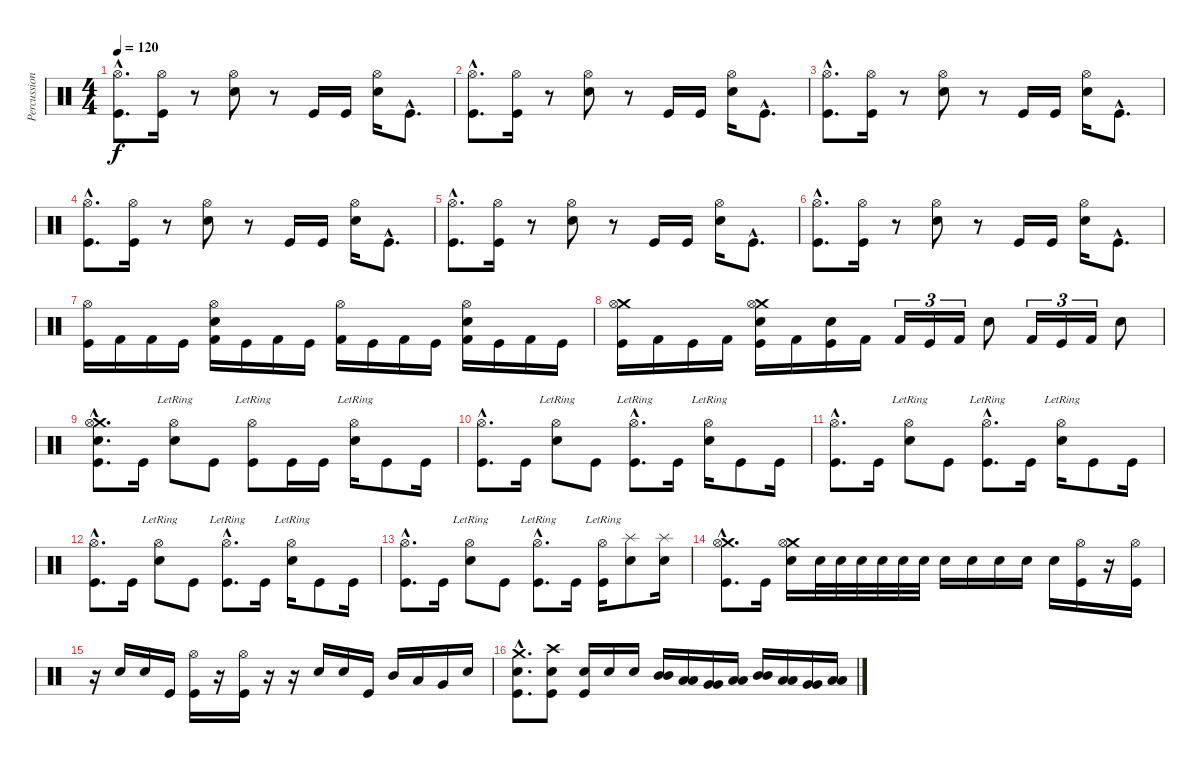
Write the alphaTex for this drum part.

\track ("Percussions" "Percussion") {instrument percussion}
\staff {score}
\articulation defaults
\ts (4 4)
\tempo 120
\clef neutral
\ks c
("Hi-Hat (open)"{hac} "Kick (hit)"{hac}).8{d dy f} ("Hi-Hat (open)" "Kick (hit)").16 r.8 ("Hi-Hat (open)" "Snare (hit) 2").8 r.8 "Kick (hit)".16 "Kick (hit)".16 ("Hi-Hat (open)" "Snare (hit) 2").16 "Kick (hit)"{hac}.8{d} |
("Hi-Hat (open)"{hac} "Kick (hit)"{hac}).8{d} ("Hi-Hat (open)" "Kick (hit)").16 r.8 ("Hi-Hat (open)" "Snare (hit) 2").8 r.8 "Kick (hit)".16 "Kick (hit)".16 ("Hi-Hat (open)" "Snare (hit) 2").16 "Kick (hit)"{hac}.8{d} |
("Hi-Hat (open)"{hac} "Kick (hit)"{hac}).8{d} ("Hi-Hat (open)" "Kick (hit)").16 r.8 ("Hi-Hat (open)" "Snare (hit) 2").8 r.8 "Kick (hit)".16 "Kick (hit)".16 ("Hi-Hat (open)" "Snare (hit) 2").16 "Kick (hit)"{hac}.8{d} |
("Hi-Hat (open)"{hac} "Kick (hit)"{hac}).8{d} ("Hi-Hat (open)" "Kick (hit)").16 r.8 ("Hi-Hat (open)" "Snare (hit) 2").8 r.8 "Kick (hit)".16 "Kick (hit)".16 ("Hi-Hat (open)" "Snare (hit) 2").16 "Kick (hit)"{hac}.8{d} |
("Hi-Hat (open)"{hac} "Kick (hit)"{hac}).8{d} ("Hi-Hat (open)" "Kick (hit)").16 r.8 ("Hi-Hat (open)" "Snare (hit) 2").8 r.8 "Kick (hit)".16 "Kick (hit)".16 ("Hi-Hat (open)" "Snare (hit) 2").16 "Kick (hit)"{hac}.8{d} |
("Hi-Hat (open)"{hac} "Kick (hit)"{hac}).8{d} ("Hi-Hat (open)" "Kick (hit)").16 r.8 ("Hi-Hat (open)" "Snare (hit) 2").8 r.8 "Kick (hit)".16 "Kick (hit)".16 ("Hi-Hat (open)" "Snare (hit) 2").16 "Kick (hit)"{hac}.8{d} |
("Hi-Hat (open)" "Kick (hit)").16 "Kick (hit) 2".16 "Kick (hit) 2".16 "Kick (hit)".16 ("Hi-Hat (open)" "Snare (hit) 2" "Kick (hit) 2").16 "Kick (hit)".16 "Kick (hit) 2".16 "Kick (hit)".16 ("Hi-Hat (open)" "Kick (hit) 2").16 "Kick (hit)".16 "Kick (hit) 2".16 "Kick (hit)".16 ("Hi-Hat (open)" "Snare (hit) 2" "Kick (hit) 2").16 "Kick (hit)".16 "Kick (hit) 2".16 "Kick (hit)".16 |
("Crash medium (hit)" "Hi-Hat (open)" "Kick (hit)").16 "Kick (hit) 2".16 "Kick (hit)".16 "Kick (hit) 2".16 ("Crash medium (hit)" "Hi-Hat (open)" "Snare (hit) 2" "Kick (hit)").16 "Kick (hit) 2".16 ("Snare (hit) 2" "Kick (hit)").16 "Kick (hit) 2".16 "Kick (hit) 2".16{tu (3 2)} "Kick (hit)".16{tu (3 2)} "Kick (hit) 2".16{tu (3 2)} "Snare (hit) 2".8 "Kick (hit) 2".16{tu (3 2)} "Kick (hit)".16{tu (3 2)} "Kick (hit) 2".16{tu (3 2)} "Snare (hit) 2".8 |
("Crash medium (hit)"{hac} "Hi-Hat (open)"{hac} "Snare (hit) 2"{hac} "Kick (hit)"{hac}).8{d} "Kick (hit)".16 ("Hi-Hat (open)"{lr} "Snare (hit) 2").8 "Kick (hit)".8 ("Hi-Hat (open)"{lr} "Kick (hit)").8 "Kick (hit)".16 "Kick (hit)".16 ("Hi-Hat (open)"{lr} "Snare (hit) 2").16 "Kick (hit)".8 "Kick (hit)".16 |
("Hi-Hat (open)"{hac} "Kick (hit)"{hac}).8{d} "Kick (hit)".16 ("Hi-Hat (open)"{lr} "Snare (hit) 2").8 "Kick (hit)".8 ("Hi-Hat (open)"{hac lr} "Kick (hit)"{hac}).8{d} "Kick (hit)".16 ("Hi-Hat (open)"{lr} "Snare (hit) 2").16 "Kick (hit)".8 "Kick (hit)".16 |
("Hi-Hat (open)"{hac} "Kick (hit)"{hac}).8{d} "Kick (hit)".16 ("Hi-Hat (open)"{lr} "Snare (hit) 2").8 "Kick (hit)".8 ("Hi-Hat (open)"{hac lr} "Kick (hit)"{hac}).8{d} "Kick (hit)".16 ("Hi-Hat (open)"{lr} "Snare (hit) 2").16 "Kick (hit)".8 "Kick (hit)".16 |
("Hi-Hat (open)"{hac} "Kick (hit)"{hac}).8{d} "Kick (hit)".16 ("Hi-Hat (open)"{lr} "Snare (hit) 2").8 "Kick (hit)".8 ("Hi-Hat (open)"{hac lr} "Kick (hit)"{hac}).8{d} "Kick (hit)".16 ("Hi-Hat (open)"{lr} "Snare (hit) 2").16 "Kick (hit)".8 "Kick (hit)".16 |
("Hi-Hat (open)"{hac} "Kick (hit)"{hac}).8{d} "Kick (hit)".16 ("Hi-Hat (open)"{lr} "Snare (hit) 2").8 "Kick (hit)".8 ("Hi-Hat (open)"{hac lr} "Kick (hit)"{hac}).8{d} "Kick (hit)".16 ("Hi-Hat (open)"{lr} "Kick (hit)").16 ("Splash (hit)" "Snare (hit) 2").8 ("Splash (hit)" "Snare (hit) 2").16 |
("Crash medium (hit)"{hac} "Hi-Hat (open)"{hac} "Kick (hit)"{hac}).8{d} "Kick (hit)".16 ("Crash medium (hit)" "Hi-Hat (open)" "Snare (hit) 2").16 "Snare (hit) 2".32 "Snare (hit) 2".32 "Snare (hit) 2".32 "Snare (hit) 2".32 "Snare (hit) 2".32 "Snare (hit) 2".32 "Snare (hit) 2".16 "Snare (hit) 2".16 "Snare (hit) 2".16 "Snare (hit) 2".16 "Snare (hit) 2".16 ("Hi-Hat (open)" "Kick (hit)").16 r.16 ("Hi-Hat (open)" "Kick (hit)").16 |
r.16 "Snare (hit) 2".16 "Snare (hit) 2".16 "Kick (hit)".16 ("Hi-Hat (open)" "Kick (hit)").16 r.16 ("Hi-Hat (open)" "Kick (hit)").16 r.16 r.16 "Snare (hit) 2".16 "Snare (hit) 2".16 "Kick (hit)".16 "Mid Tom (hit)".16 "Low Tom (hit)".16 "Very Low Tom (hit)".16 "Snare (hit) 2".16 |
("Crash medium (hit)"{hac} "Snare (hit) 2"{hac} "Kick (hit)"{hac}).8{d} ("Crash high (hit)" "Snare (hit) 2" "Kick (hit)").8 ("Snare (hit) 2" "Kick (hit)").16 "Snare (hit) 2".16 "Snare (hit) 2".16 ("Mid Tom (hit)" "Mid Tom (hit)").16 ("Low Tom (hit)" "Low Tom (hit)").16 ("Very Low Tom (hit)" "Very Low Tom (hit)").16 ("Low Floor Tom (hit)" "Low Floor Tom (hit)").16 ("Mid Tom (hit)" "Mid Tom (hit)").16 ("Low Tom (hit)" "Low Tom (hit)").16 ("Very Low Tom (hit)" "Very Low Tom (hit)").16 ("Low Floor Tom (hit)" "Low Floor Tom (hit)").16
